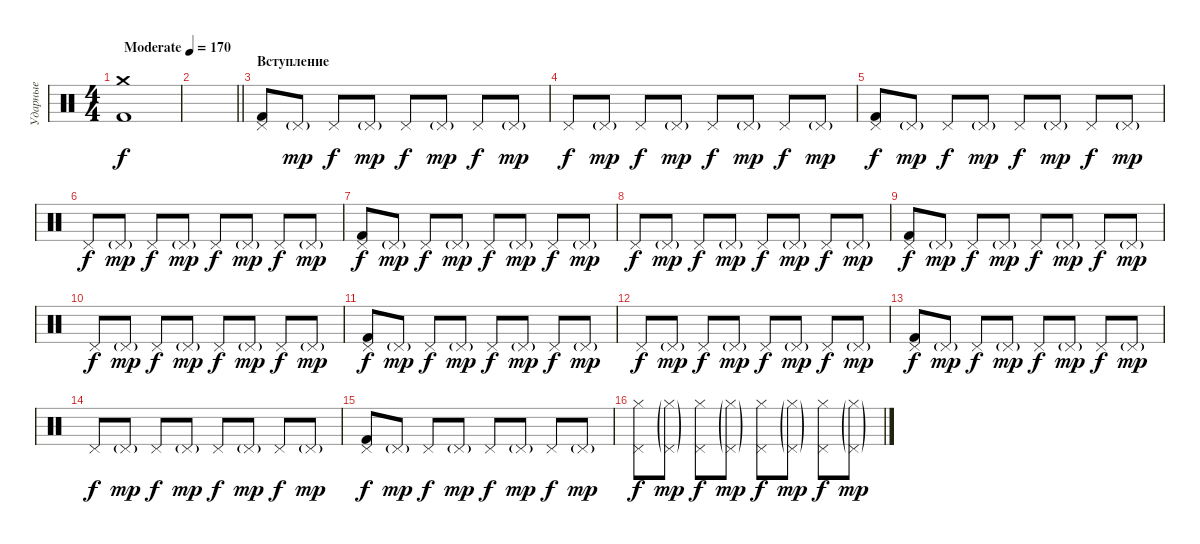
\track ("Ударные" "Ударные") {instrument percussion}
\staff {score}
\articulation defaults
\ts (4 4)
\section ("" "")
\tempo (170 "Moderate")
\clef neutral
\ks c
("Crash medium (hit)" "Kick (hit) 2").1{dy f} |
\barLineRight lightlight
|
\section ("" "Вступление")
("Pedal Hi-Hat (hit)" "Kick (hit) 2").8 "Pedal Hi-Hat (hit)"{g}.8{dy mp} "Pedal Hi-Hat (hit)".8{dy f} "Pedal Hi-Hat (hit)"{g}.8{dy mp} "Pedal Hi-Hat (hit)".8{dy f} "Pedal Hi-Hat (hit)"{g}.8{dy mp} "Pedal Hi-Hat (hit)".8{dy f} "Pedal Hi-Hat (hit)"{g}.8{dy mp} |
"Pedal Hi-Hat (hit)".8{dy f} "Pedal Hi-Hat (hit)"{g}.8{dy mp} "Pedal Hi-Hat (hit)".8{dy f} "Pedal Hi-Hat (hit)"{g}.8{dy mp} "Pedal Hi-Hat (hit)".8{dy f} "Pedal Hi-Hat (hit)"{g}.8{dy mp} "Pedal Hi-Hat (hit)".8{dy f} "Pedal Hi-Hat (hit)"{g}.8{dy mp} |
("Pedal Hi-Hat (hit)" "Kick (hit) 2").8{dy f} "Pedal Hi-Hat (hit)"{g}.8{dy mp} "Pedal Hi-Hat (hit)".8{dy f} "Pedal Hi-Hat (hit)"{g}.8{dy mp} "Pedal Hi-Hat (hit)".8{dy f} "Pedal Hi-Hat (hit)"{g}.8{dy mp} "Pedal Hi-Hat (hit)".8{dy f} "Pedal Hi-Hat (hit)"{g}.8{dy mp} |
"Pedal Hi-Hat (hit)".8{dy f} "Pedal Hi-Hat (hit)"{g}.8{dy mp} "Pedal Hi-Hat (hit)".8{dy f} "Pedal Hi-Hat (hit)"{g}.8{dy mp} "Pedal Hi-Hat (hit)".8{dy f} "Pedal Hi-Hat (hit)"{g}.8{dy mp} "Pedal Hi-Hat (hit)".8{dy f} "Pedal Hi-Hat (hit)"{g}.8{dy mp} |
("Pedal Hi-Hat (hit)" "Kick (hit) 2").8{dy f} "Pedal Hi-Hat (hit)"{g}.8{dy mp} "Pedal Hi-Hat (hit)".8{dy f} "Pedal Hi-Hat (hit)"{g}.8{dy mp} "Pedal Hi-Hat (hit)".8{dy f} "Pedal Hi-Hat (hit)"{g}.8{dy mp} "Pedal Hi-Hat (hit)".8{dy f} "Pedal Hi-Hat (hit)"{g}.8{dy mp} |
"Pedal Hi-Hat (hit)".8{dy f} "Pedal Hi-Hat (hit)"{g}.8{dy mp} "Pedal Hi-Hat (hit)".8{dy f} "Pedal Hi-Hat (hit)"{g}.8{dy mp} "Pedal Hi-Hat (hit)".8{dy f} "Pedal Hi-Hat (hit)"{g}.8{dy mp} "Pedal Hi-Hat (hit)".8{dy f} "Pedal Hi-Hat (hit)"{g}.8{dy mp} |
("Pedal Hi-Hat (hit)" "Kick (hit) 2").8{dy f} "Pedal Hi-Hat (hit)"{g}.8{dy mp} "Pedal Hi-Hat (hit)".8{dy f} "Pedal Hi-Hat (hit)"{g}.8{dy mp} "Pedal Hi-Hat (hit)".8{dy f} "Pedal Hi-Hat (hit)"{g}.8{dy mp} "Pedal Hi-Hat (hit)".8{dy f} "Pedal Hi-Hat (hit)"{g}.8{dy mp} |
"Pedal Hi-Hat (hit)".8{dy f} "Pedal Hi-Hat (hit)"{g}.8{dy mp} "Pedal Hi-Hat (hit)".8{dy f} "Pedal Hi-Hat (hit)"{g}.8{dy mp} "Pedal Hi-Hat (hit)".8{dy f} "Pedal Hi-Hat (hit)"{g}.8{dy mp} "Pedal Hi-Hat (hit)".8{dy f} "Pedal Hi-Hat (hit)"{g}.8{dy mp} |
("Pedal Hi-Hat (hit)" "Kick (hit) 2").8{dy f} "Pedal Hi-Hat (hit)"{g}.8{dy mp} "Pedal Hi-Hat (hit)".8{dy f} "Pedal Hi-Hat (hit)"{g}.8{dy mp} "Pedal Hi-Hat (hit)".8{dy f} "Pedal Hi-Hat (hit)"{g}.8{dy mp} "Pedal Hi-Hat (hit)".8{dy f} "Pedal Hi-Hat (hit)"{g}.8{dy mp} |
"Pedal Hi-Hat (hit)".8{dy f} "Pedal Hi-Hat (hit)"{g}.8{dy mp} "Pedal Hi-Hat (hit)".8{dy f} "Pedal Hi-Hat (hit)"{g}.8{dy mp} "Pedal Hi-Hat (hit)".8{dy f} "Pedal Hi-Hat (hit)"{g}.8{dy mp} "Pedal Hi-Hat (hit)".8{dy f} "Pedal Hi-Hat (hit)"{g}.8{dy mp} |
("Pedal Hi-Hat (hit)" "Kick (hit) 2").8{dy f} "Pedal Hi-Hat (hit)"{g}.8{dy mp} "Pedal Hi-Hat (hit)".8{dy f} "Pedal Hi-Hat (hit)"{g}.8{dy mp} "Pedal Hi-Hat (hit)".8{dy f} "Pedal Hi-Hat (hit)"{g}.8{dy mp} "Pedal Hi-Hat (hit)".8{dy f} "Pedal Hi-Hat (hit)"{g}.8{dy mp} |
"Pedal Hi-Hat (hit)".8{dy f} "Pedal Hi-Hat (hit)"{g}.8{dy mp} "Pedal Hi-Hat (hit)".8{dy f} "Pedal Hi-Hat (hit)"{g}.8{dy mp} "Pedal Hi-Hat (hit)".8{dy f} "Pedal Hi-Hat (hit)"{g}.8{dy mp} "Pedal Hi-Hat (hit)".8{dy f} "Pedal Hi-Hat (hit)"{g}.8{dy mp} |
("Pedal Hi-Hat (hit)" "Kick (hit) 2").8{dy f} "Pedal Hi-Hat (hit)"{g}.8{dy mp} "Pedal Hi-Hat (hit)".8{dy f} "Pedal Hi-Hat (hit)"{g}.8{dy mp} "Pedal Hi-Hat (hit)".8{dy f} "Pedal Hi-Hat (hit)"{g}.8{dy mp} "Pedal Hi-Hat (hit)".8{dy f} "Pedal Hi-Hat (hit)"{g}.8{dy mp} |
("Pedal Hi-Hat (hit)" "Hi-Hat (closed)").8{dy f} ("Pedal Hi-Hat (hit)"{g} "Hi-Hat (closed)"{g}).8{dy mp} ("Pedal Hi-Hat (hit)" "Hi-Hat (closed)").8{dy f} ("Pedal Hi-Hat (hit)"{g} "Hi-Hat (closed)"{g}).8{dy mp} ("Pedal Hi-Hat (hit)" "Hi-Hat (closed)").8{dy f} ("Pedal Hi-Hat (hit)"{g} "Hi-Hat (closed)"{g}).8{dy mp} ("Pedal Hi-Hat (hit)" "Hi-Hat (closed)").8{dy f} ("Pedal Hi-Hat (hit)"{g} "Hi-Hat (closed)"{g}).8{dy mp}
